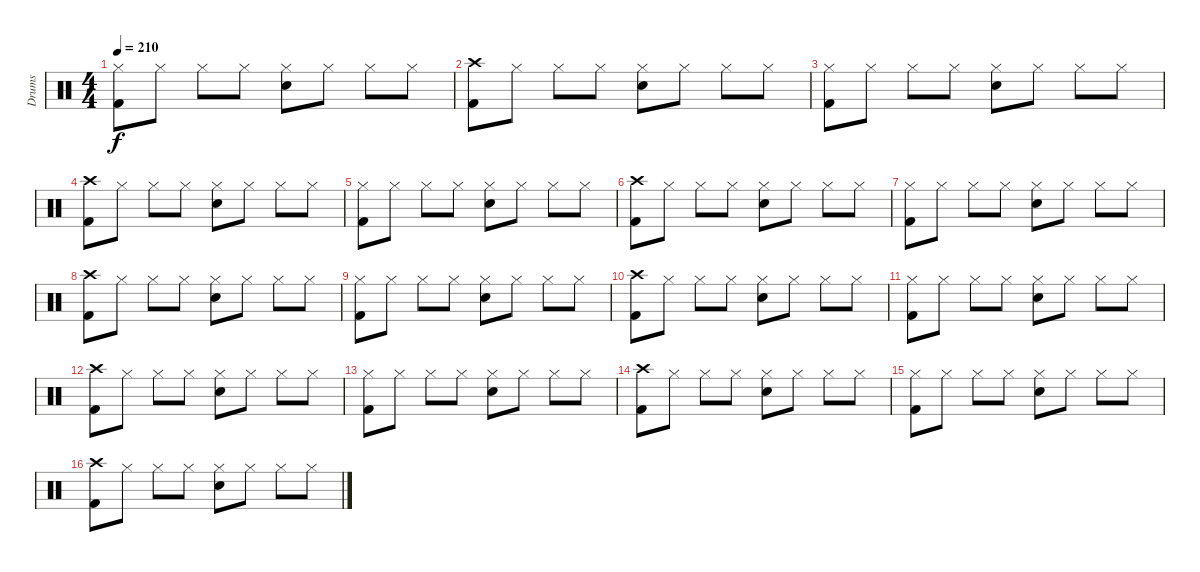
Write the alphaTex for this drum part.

\track ("Drums" "Drums") {instrument percussion}
\staff {score}
\articulation defaults
\ts (4 4)
\tempo 210
\clef neutral
\ks c
("Hi-Hat (closed)" "Kick (hit) 2").8{dy f} "Hi-Hat (closed)".8 "Hi-Hat (closed)".8 "Hi-Hat (closed)".8 ("Hi-Hat (closed)" "Electric Snare (hit)").8 "Hi-Hat (closed)".8 "Hi-Hat (closed)".8 "Hi-Hat (closed)".8 |
("Crash high (hit)" "Kick (hit) 2").8 "Hi-Hat (closed)".8 "Hi-Hat (closed)".8 "Hi-Hat (closed)".8 ("Hi-Hat (closed)" "Electric Snare (hit)").8 "Hi-Hat (closed)".8 "Hi-Hat (closed)".8 "Hi-Hat (closed)".8 |
("Hi-Hat (closed)" "Kick (hit) 2").8 "Hi-Hat (closed)".8 "Hi-Hat (closed)".8 "Hi-Hat (closed)".8 ("Hi-Hat (closed)" "Electric Snare (hit)").8 "Hi-Hat (closed)".8 "Hi-Hat (closed)".8 "Hi-Hat (closed)".8 |
("Crash high (hit)" "Kick (hit) 2").8 "Hi-Hat (closed)".8 "Hi-Hat (closed)".8 "Hi-Hat (closed)".8 ("Hi-Hat (closed)" "Electric Snare (hit)").8 "Hi-Hat (closed)".8 "Hi-Hat (closed)".8 "Hi-Hat (closed)".8 |
("Hi-Hat (closed)" "Kick (hit) 2").8 "Hi-Hat (closed)".8 "Hi-Hat (closed)".8 "Hi-Hat (closed)".8 ("Hi-Hat (closed)" "Electric Snare (hit)").8 "Hi-Hat (closed)".8 "Hi-Hat (closed)".8 "Hi-Hat (closed)".8 |
("Crash high (hit)" "Kick (hit) 2").8 "Hi-Hat (closed)".8 "Hi-Hat (closed)".8 "Hi-Hat (closed)".8 ("Hi-Hat (closed)" "Electric Snare (hit)").8 "Hi-Hat (closed)".8 "Hi-Hat (closed)".8 "Hi-Hat (closed)".8 |
("Hi-Hat (closed)" "Kick (hit) 2").8 "Hi-Hat (closed)".8 "Hi-Hat (closed)".8 "Hi-Hat (closed)".8 ("Hi-Hat (closed)" "Electric Snare (hit)").8 "Hi-Hat (closed)".8 "Hi-Hat (closed)".8 "Hi-Hat (closed)".8 |
("Crash high (hit)" "Kick (hit) 2").8 "Hi-Hat (closed)".8 "Hi-Hat (closed)".8 "Hi-Hat (closed)".8 ("Hi-Hat (closed)" "Electric Snare (hit)").8 "Hi-Hat (closed)".8 "Hi-Hat (closed)".8 "Hi-Hat (closed)".8 |
("Hi-Hat (closed)" "Kick (hit) 2").8 "Hi-Hat (closed)".8 "Hi-Hat (closed)".8 "Hi-Hat (closed)".8 ("Hi-Hat (closed)" "Electric Snare (hit)").8 "Hi-Hat (closed)".8 "Hi-Hat (closed)".8 "Hi-Hat (closed)".8 |
("Crash high (hit)" "Kick (hit) 2").8 "Hi-Hat (closed)".8 "Hi-Hat (closed)".8 "Hi-Hat (closed)".8 ("Hi-Hat (closed)" "Electric Snare (hit)").8 "Hi-Hat (closed)".8 "Hi-Hat (closed)".8 "Hi-Hat (closed)".8 |
("Hi-Hat (closed)" "Kick (hit) 2").8 "Hi-Hat (closed)".8 "Hi-Hat (closed)".8 "Hi-Hat (closed)".8 ("Hi-Hat (closed)" "Electric Snare (hit)").8 "Hi-Hat (closed)".8 "Hi-Hat (closed)".8 "Hi-Hat (closed)".8 |
("Crash high (hit)" "Kick (hit) 2").8 "Hi-Hat (closed)".8 "Hi-Hat (closed)".8 "Hi-Hat (closed)".8 ("Hi-Hat (closed)" "Electric Snare (hit)").8 "Hi-Hat (closed)".8 "Hi-Hat (closed)".8 "Hi-Hat (closed)".8 |
("Hi-Hat (closed)" "Kick (hit) 2").8 "Hi-Hat (closed)".8 "Hi-Hat (closed)".8 "Hi-Hat (closed)".8 ("Hi-Hat (closed)" "Electric Snare (hit)").8 "Hi-Hat (closed)".8 "Hi-Hat (closed)".8 "Hi-Hat (closed)".8 |
("Crash high (hit)" "Kick (hit) 2").8 "Hi-Hat (closed)".8 "Hi-Hat (closed)".8 "Hi-Hat (closed)".8 ("Hi-Hat (closed)" "Electric Snare (hit)").8 "Hi-Hat (closed)".8 "Hi-Hat (closed)".8 "Hi-Hat (closed)".8 |
("Hi-Hat (closed)" "Kick (hit) 2").8 "Hi-Hat (closed)".8 "Hi-Hat (closed)".8 "Hi-Hat (closed)".8 ("Hi-Hat (closed)" "Electric Snare (hit)").8 "Hi-Hat (closed)".8 "Hi-Hat (closed)".8 "Hi-Hat (closed)".8 |
("Crash high (hit)" "Kick (hit) 2").8 "Hi-Hat (closed)".8 "Hi-Hat (closed)".8 "Hi-Hat (closed)".8 ("Hi-Hat (closed)" "Electric Snare (hit)").8 "Hi-Hat (closed)".8 "Hi-Hat (closed)".8 "Hi-Hat (closed)".8
